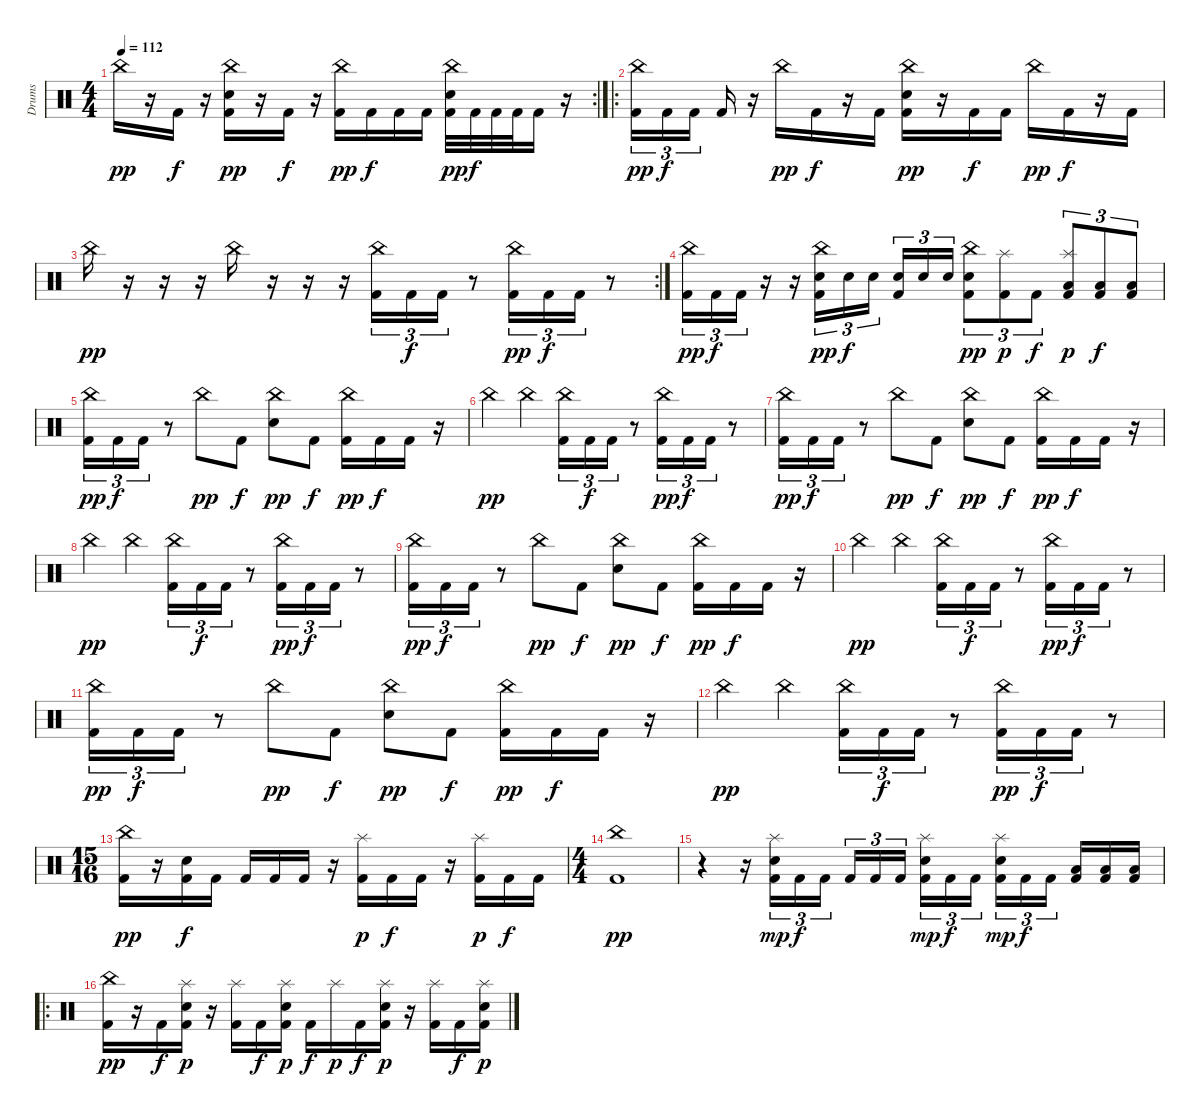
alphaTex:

\track ("Drums" "Drums") {instrument percussion}
\staff
\articulation defaults
\rc 2
\ts (4 4)
\tempo 112
\clef neutral
\ks c "China (hit)".16{dy pp}
r.16 "Kick (hit) 2".16{dy f} r.16 ("China (hit)" "Snare (hit) 2" "Kick (hit) 2").16{dy pp} r.16 "Kick (hit) 2".16{dy f} r.16 ("China (hit)" "Kick (hit) 2").16{dy pp} "Kick (hit) 2".16{dy f} "Kick (hit) 2".16 "Kick (hit) 2".16 ("China (hit)" "Snare (hit) 2" "Kick (hit) 2").32{dy pp} "Kick (hit) 2".32{dy f} "Kick (hit) 2".32 "Kick (hit) 2".32 "Kick (hit) 2".16 r.16 |
\ro
("China (hit)" "Kick (hit) 2").16{tu (3 2) dy pp} "Kick (hit) 2".16{tu (3 2) dy f} "Kick (hit) 2".16{tu (3 2) beam splitsecondary} "Kick (hit) 2".16 r.16 "China (hit)".16{dy pp} "Kick (hit) 2".16{dy f} r.16 "Kick (hit) 2".16 ("China (hit)" "Snare (hit) 2" "Kick (hit) 2").16{dy pp} r.16 "Kick (hit) 2".16{dy f} "Kick (hit) 2".16 "China (hit)".16{dy pp} "Kick (hit) 2".16{dy f} r.16 "Kick (hit) 2".16 |
\rc 2 "China (hit)".16{dy pp}
r.16 r.16 r.16 "China (hit)".16 r.16 r.16 r.16 ("China (hit)" "Kick (hit) 2").16{tu (3 2)} "Kick (hit) 2".16{tu (3 2) dy f} "Kick (hit) 2".16{tu (3 2)} r.8 ("China (hit)" "Kick (hit) 2").16{tu (3 2) dy pp} "Kick (hit) 2".16{tu (3 2) dy f} "Kick (hit) 2".16{tu (3 2)} r.8 |
("China (hit)" "Kick (hit) 2").16{tu (3 2) dy pp} "Kick (hit) 2".16{tu (3 2) dy f} "Kick (hit) 2".16{tu (3 2)} r.16 r.16 ("China (hit)" "Snare (hit) 2" "Kick (hit) 2").16{tu (3 2) dy pp} "Snare (hit) 2".16{tu (3 2) dy f} "Snare (hit) 2".16{tu (3 2) beam splitsecondary} ("Snare (hit) 2" "Kick (hit) 2").16{tu (3 2)} "Snare (hit) 2".16{tu (3 2)} "Snare (hit) 2".16{tu (3 2)} ("China (hit)" "Snare (hit) 2" "Kick (hit) 2").8{tu (3 2) dy pp} ("Splash (hit)" "Kick (hit) 2").8{tu (3 2) dy p} "Kick (hit) 2".8{tu (3 2) dy f} ("Splash (hit)" "Low Floor Tom (hit)" "Kick (hit) 2").8{tu (3 2) dy p} ("Low Floor Tom (hit)" "Kick (hit) 2").8{tu (3 2) dy f} ("Low Floor Tom (hit)" "Kick (hit) 2").8{tu (3 2)} |
("China (hit)" "Kick (hit) 2").16{tu (3 2) dy pp} "Kick (hit) 2".16{tu (3 2) dy f} "Kick (hit) 2".16{tu (3 2)} r.8 "China (hit)".8{dy pp} "Kick (hit) 2".8{dy f} ("China (hit)" "Snare (hit) 2").8{dy pp} "Kick (hit) 2".8{dy f} ("China (hit)" "Kick (hit) 2").16{dy pp} "Kick (hit) 2".16{dy f} "Kick (hit) 2".16 r.16 |
"China (hit)".4{dy pp} "China (hit)".4 ("China (hit)" "Kick (hit) 2").16{tu (3 2)} "Kick (hit) 2".16{tu (3 2) dy f} "Kick (hit) 2".16{tu (3 2)} r.8 ("China (hit)" "Kick (hit) 2").16{tu (3 2) dy pp} "Kick (hit) 2".16{tu (3 2) dy f} "Kick (hit) 2".16{tu (3 2)} r.8 |
("China (hit)" "Kick (hit) 2").16{tu (3 2) dy pp} "Kick (hit) 2".16{tu (3 2) dy f} "Kick (hit) 2".16{tu (3 2)} r.8 "China (hit)".8{dy pp} "Kick (hit) 2".8{dy f} ("China (hit)" "Snare (hit) 2").8{dy pp} "Kick (hit) 2".8{dy f} ("China (hit)" "Kick (hit) 2").16{dy pp} "Kick (hit) 2".16{dy f} "Kick (hit) 2".16 r.16 |
"China (hit)".4{dy pp} "China (hit)".4 ("China (hit)" "Kick (hit) 2").16{tu (3 2)} "Kick (hit) 2".16{tu (3 2) dy f} "Kick (hit) 2".16{tu (3 2)} r.8 ("China (hit)" "Kick (hit) 2").16{tu (3 2) dy pp} "Kick (hit) 2".16{tu (3 2) dy f} "Kick (hit) 2".16{tu (3 2)} r.8 |
("China (hit)" "Kick (hit) 2").16{tu (3 2) dy pp} "Kick (hit) 2".16{tu (3 2) dy f} "Kick (hit) 2".16{tu (3 2)} r.8 "China (hit)".8{dy pp} "Kick (hit) 2".8{dy f} ("China (hit)" "Snare (hit) 2").8{dy pp} "Kick (hit) 2".8{dy f} ("China (hit)" "Kick (hit) 2").16{dy pp} "Kick (hit) 2".16{dy f} "Kick (hit) 2".16 r.16 |
"China (hit)".4{dy pp} "China (hit)".4 ("China (hit)" "Kick (hit) 2").16{tu (3 2)} "Kick (hit) 2".16{tu (3 2) dy f} "Kick (hit) 2".16{tu (3 2)} r.8 ("China (hit)" "Kick (hit) 2").16{tu (3 2) dy pp} "Kick (hit) 2".16{tu (3 2) dy f} "Kick (hit) 2".16{tu (3 2)} r.8 |
("China (hit)" "Kick (hit) 2").16{tu (3 2) dy pp} "Kick (hit) 2".16{tu (3 2) dy f} "Kick (hit) 2".16{tu (3 2)} r.8 "China (hit)".8{dy pp} "Kick (hit) 2".8{dy f} ("China (hit)" "Snare (hit) 2").8{dy pp} "Kick (hit) 2".8{dy f} ("China (hit)" "Kick (hit) 2").16{dy pp} "Kick (hit) 2".16{dy f} "Kick (hit) 2".16 r.16 |
"China (hit)".4{dy pp} "China (hit)".4 ("China (hit)" "Kick (hit) 2").16{tu (3 2)} "Kick (hit) 2".16{tu (3 2) dy f} "Kick (hit) 2".16{tu (3 2)} r.8 ("China (hit)" "Kick (hit) 2").16{tu (3 2) dy pp} "Kick (hit) 2".16{tu (3 2) dy f} "Kick (hit) 2".16{tu (3 2)} r.8 |
\ts (15 16)
("China (hit)" "Kick (hit) 2").16{dy pp} r.16 ("Snare (hit) 2" "Kick (hit) 2").16{dy f} "Kick (hit) 2".16 "Kick (hit) 2".16 "Kick (hit) 2".16 "Kick (hit) 2".16 r.16 ("Splash (hit)" "Kick (hit) 2").16{dy p} "Kick (hit) 2".16{dy f} "Kick (hit) 2".16 r.16 ("Splash (hit)" "Kick (hit) 2").16{dy p} "Kick (hit) 2".16{dy f} "Kick (hit) 2".16 |
\ts (4 4)
("China (hit)" "Kick (hit) 2").1{dy pp} |
r.4 r.16 ("Splash (hit)" "Snare (hit) 2" "Kick (hit) 2").16{tu (3 2) dy mp} "Kick (hit) 2".16{tu (3 2) dy f} "Kick (hit) 2".16{tu (3 2) beam splitsecondary} "Kick (hit) 2".16{tu (3 2)} "Kick (hit) 2".16{tu (3 2)} "Kick (hit) 2".16{tu (3 2) beam splitsecondary} ("Splash (hit)" "Snare (hit) 2" "Kick (hit) 2").16{tu (3 2) dy mp} "Kick (hit) 2".16{tu (3 2) dy f} "Kick (hit) 2".16{tu (3 2) beam splitsecondary} ("Splash (hit)" "Snare (hit) 2" "Kick (hit) 2").16{tu (3 2) dy mp} "Kick (hit) 2".16{tu (3 2) dy f} "Kick (hit) 2".16{tu (3 2) beam splitsecondary} ("Low Floor Tom (hit)" "Kick (hit) 2").16 ("Low Floor Tom (hit)" "Kick (hit) 2").16 ("Low Floor Tom (hit)" "Kick (hit) 2").16 |
\ro
("China (hit)" "Kick (hit) 2").16{dy pp} r.16 "Kick (hit) 2".16{dy f} ("Splash (hit)" "Snare (hit) 2" "Kick (hit) 2").16{dy p} r.16 ("Splash (hit)" "Kick (hit) 2").16 "Kick (hit) 2".16{dy f} ("Splash (hit)" "Snare (hit) 2" "Kick (hit) 2").16{dy p} "Kick (hit) 2".16{dy f} "Splash (hit)".16{dy p} "Kick (hit) 2".16{dy f} ("Splash (hit)" "Snare (hit) 2" "Kick (hit) 2").16{dy p} r.16 ("Splash (hit)" "Kick (hit) 2").16 "Kick (hit) 2".16{dy f} ("Splash (hit)" "Snare (hit) 2" "Kick (hit) 2").16{dy p}
